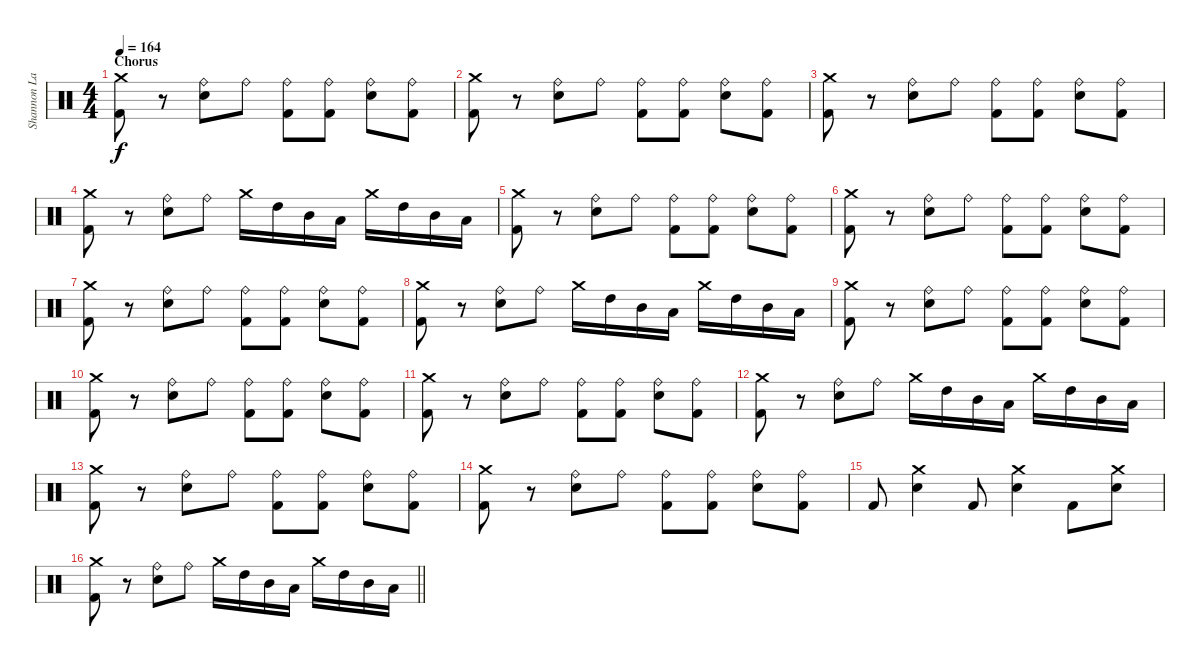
\track ("Shannon Larkin" "Shannon La") {instrument percussion}
\staff {score}
\articulation defaults
\ts (4 4)
\section ("" "Chorus")
\tempo 164
\clef neutral
\ks c
("Crash medium (hit)" "Kick (hit) 2").8{dy f} r.8 ("Ride (bell)" "Electric Snare (hit)").8 "Ride (bell)".8 ("Ride (bell)" "Kick (hit) 2").8 ("Ride (bell)" "Kick (hit) 2").8 ("Ride (bell)" "Electric Snare (hit)").8 ("Ride (bell)" "Kick (hit) 2").8 |
("Crash medium (hit)" "Kick (hit) 2").8 r.8 ("Ride (bell)" "Electric Snare (hit)").8 "Ride (bell)".8 ("Ride (bell)" "Kick (hit) 2").8 ("Ride (bell)" "Kick (hit) 2").8 ("Ride (bell)" "Electric Snare (hit)").8 ("Ride (bell)" "Kick (hit) 2").8 |
("Crash medium (hit)" "Kick (hit) 2").8 r.8 ("Ride (bell)" "Electric Snare (hit)").8 "Ride (bell)".8 ("Ride (bell)" "Kick (hit) 2").8 ("Ride (bell)" "Kick (hit) 2").8 ("Ride (bell)" "Electric Snare (hit)").8 ("Ride (bell)" "Kick (hit) 2").8 |
("Crash medium (hit)" "Kick (hit) 2").8 r.8 ("Ride (bell)" "Electric Snare (hit)").8 "Ride (bell)".8 "Crash medium (hit)".16 "High Tom (hit)".16 "Mid Tom (hit)".16 "Low Tom (hit)".16 "Crash medium (hit)".16 "High Tom (hit)".16 "Mid Tom (hit)".16 "Low Tom (hit)".16 |
("Crash medium (hit)" "Kick (hit) 2").8 r.8 ("Ride (bell)" "Electric Snare (hit)").8 "Ride (bell)".8 ("Ride (bell)" "Kick (hit) 2").8 ("Ride (bell)" "Kick (hit) 2").8 ("Ride (bell)" "Electric Snare (hit)").8 ("Ride (bell)" "Kick (hit) 2").8 |
("Crash medium (hit)" "Kick (hit) 2").8 r.8 ("Ride (bell)" "Electric Snare (hit)").8 "Ride (bell)".8 ("Ride (bell)" "Kick (hit) 2").8 ("Ride (bell)" "Kick (hit) 2").8 ("Ride (bell)" "Electric Snare (hit)").8 ("Ride (bell)" "Kick (hit) 2").8 |
("Crash medium (hit)" "Kick (hit) 2").8 r.8 ("Ride (bell)" "Electric Snare (hit)").8 "Ride (bell)".8 ("Ride (bell)" "Kick (hit) 2").8 ("Ride (bell)" "Kick (hit) 2").8 ("Ride (bell)" "Electric Snare (hit)").8 ("Ride (bell)" "Kick (hit) 2").8 |
("Crash medium (hit)" "Kick (hit) 2").8 r.8 ("Ride (bell)" "Electric Snare (hit)").8 "Ride (bell)".8 "Crash medium (hit)".16 "High Tom (hit)".16 "Mid Tom (hit)".16 "Low Tom (hit)".16 "Crash medium (hit)".16 "High Tom (hit)".16 "Mid Tom (hit)".16 "Low Tom (hit)".16 |
("Crash medium (hit)" "Kick (hit) 2").8 r.8 ("Ride (bell)" "Electric Snare (hit)").8 "Ride (bell)".8 ("Ride (bell)" "Kick (hit) 2").8 ("Ride (bell)" "Kick (hit) 2").8 ("Ride (bell)" "Electric Snare (hit)").8 ("Ride (bell)" "Kick (hit) 2").8 |
("Crash medium (hit)" "Kick (hit) 2").8 r.8 ("Ride (bell)" "Electric Snare (hit)").8 "Ride (bell)".8 ("Ride (bell)" "Kick (hit) 2").8 ("Ride (bell)" "Kick (hit) 2").8 ("Ride (bell)" "Electric Snare (hit)").8 ("Ride (bell)" "Kick (hit) 2").8 |
("Crash medium (hit)" "Kick (hit) 2").8 r.8 ("Ride (bell)" "Electric Snare (hit)").8 "Ride (bell)".8 ("Ride (bell)" "Kick (hit) 2").8 ("Ride (bell)" "Kick (hit) 2").8 ("Ride (bell)" "Electric Snare (hit)").8 ("Ride (bell)" "Kick (hit) 2").8 |
("Crash medium (hit)" "Kick (hit) 2").8 r.8 ("Ride (bell)" "Electric Snare (hit)").8 "Ride (bell)".8 "Crash medium (hit)".16 "High Tom (hit)".16 "Mid Tom (hit)".16 "Low Tom (hit)".16 "Crash medium (hit)".16 "High Tom (hit)".16 "Mid Tom (hit)".16 "Low Tom (hit)".16 |
("Crash medium (hit)" "Kick (hit) 2").8 r.8 ("Ride (bell)" "Electric Snare (hit)").8 "Ride (bell)".8 ("Ride (bell)" "Kick (hit) 2").8 ("Ride (bell)" "Kick (hit) 2").8 ("Ride (bell)" "Electric Snare (hit)").8 ("Ride (bell)" "Kick (hit) 2").8 |
("Crash medium (hit)" "Kick (hit) 2").8 r.8 ("Ride (bell)" "Electric Snare (hit)").8 "Ride (bell)".8 ("Ride (bell)" "Kick (hit) 2").8 ("Ride (bell)" "Kick (hit) 2").8 ("Ride (bell)" "Electric Snare (hit)").8 ("Ride (bell)" "Kick (hit) 2").8 |
"Kick (hit) 2".8 ("Crash medium (hit)" "Electric Snare (hit)").4 "Kick (hit) 2".8 ("Crash medium (hit)" "Electric Snare (hit)").4 "Kick (hit) 2".8 ("Crash medium (hit)" "Electric Snare (hit)").8 |
\barLineRight lightlight
("Crash medium (hit)" "Kick (hit) 2").8 r.8 ("Ride (bell)" "Electric Snare (hit)").8 "Ride (bell)".8 "Crash medium (hit)".16 "High Tom (hit)".16 "Mid Tom (hit)".16 "Low Tom (hit)".16 "Crash medium (hit)".16 "High Tom (hit)".16 "Mid Tom (hit)".16 "Low Tom (hit)".16
